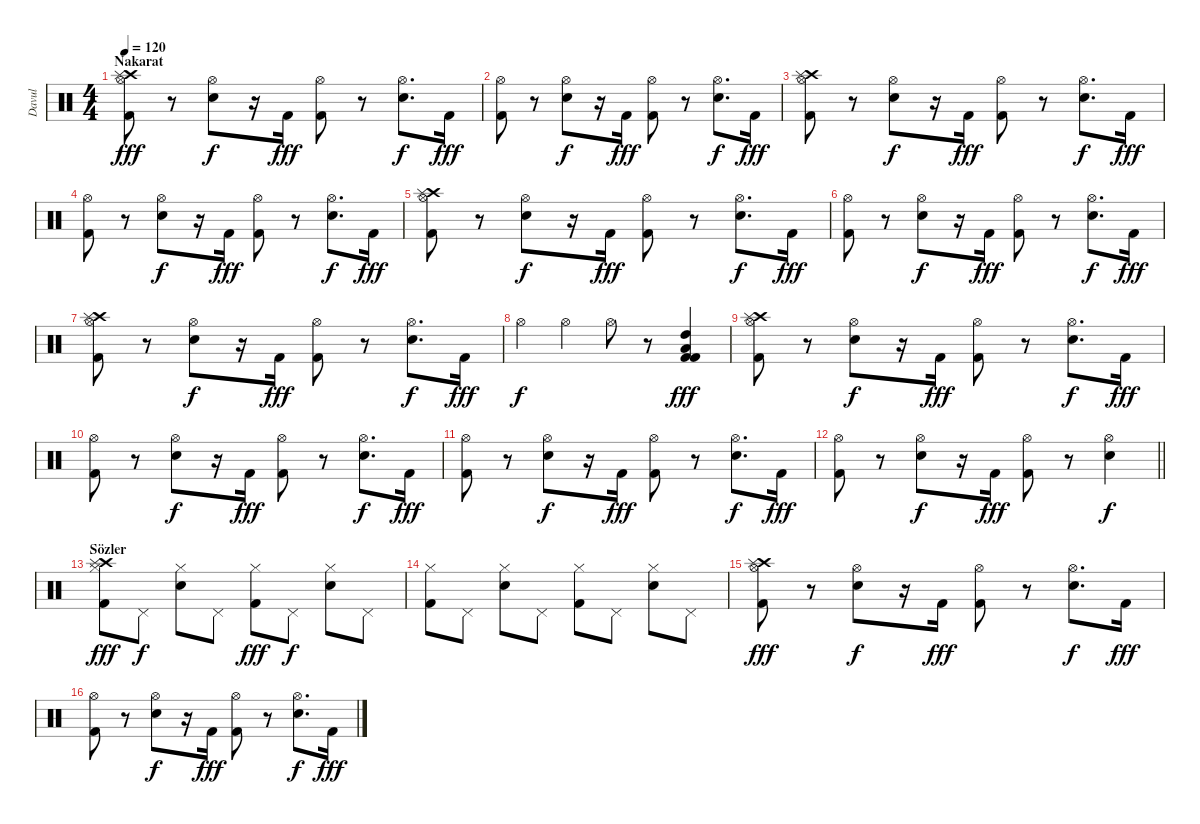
\track ("Davul" "Davul") {instrument percussion}
\staff {score}
\articulation defaults
\ts (4 4)
\section ("" "Nakarat")
\tempo 120
\clef neutral
\ks c
("Hi-Hat (open)" "Kick (hit) 2" "Crash high (hit)" "Splash (hit)").8{dy fff} r.8 ("Hi-Hat (open)" "Snare (hit) 2").8{dy f} r.16 "Kick (hit) 2".16{dy fff} ("Hi-Hat (open)" "Kick (hit) 2").8 r.8 ("Hi-Hat (open)" "Snare (hit) 2").8{d dy f} "Kick (hit) 2".16{dy fff} |
("Hi-Hat (open)" "Kick (hit) 2").8 r.8 ("Hi-Hat (open)" "Snare (hit) 2").8{dy f} r.16 "Kick (hit) 2".16{dy fff} ("Hi-Hat (open)" "Kick (hit) 2").8 r.8 ("Hi-Hat (open)" "Snare (hit) 2").8{d dy f} "Kick (hit) 2".16{dy fff} |
("Hi-Hat (open)" "Kick (hit) 2" "Crash high (hit)" "Splash (hit)").8 r.8 ("Hi-Hat (open)" "Snare (hit) 2").8{dy f} r.16 "Kick (hit) 2".16{dy fff} ("Hi-Hat (open)" "Kick (hit) 2").8 r.8 ("Hi-Hat (open)" "Snare (hit) 2").8{d dy f} "Kick (hit) 2".16{dy fff} |
("Hi-Hat (open)" "Kick (hit) 2").8 r.8 ("Hi-Hat (open)" "Snare (hit) 2").8{dy f} r.16 "Kick (hit) 2".16{dy fff} ("Hi-Hat (open)" "Kick (hit) 2").8 r.8 ("Hi-Hat (open)" "Snare (hit) 2").8{d dy f} "Kick (hit) 2".16{dy fff} |
("Hi-Hat (open)" "Kick (hit) 2" "Crash high (hit)" "Splash (hit)").8 r.8 ("Hi-Hat (open)" "Snare (hit) 2").8{dy f} r.16 "Kick (hit) 2".16{dy fff} ("Hi-Hat (open)" "Kick (hit) 2").8 r.8 ("Hi-Hat (open)" "Snare (hit) 2").8{d dy f} "Kick (hit) 2".16{dy fff} |
("Hi-Hat (open)" "Kick (hit) 2").8 r.8 ("Hi-Hat (open)" "Snare (hit) 2").8{dy f} r.16 "Kick (hit) 2".16{dy fff} ("Hi-Hat (open)" "Kick (hit) 2").8 r.8 ("Hi-Hat (open)" "Snare (hit) 2").8{d dy f} "Kick (hit) 2".16{dy fff} |
("Hi-Hat (open)" "Kick (hit) 2" "Crash high (hit)" "Splash (hit)").8 r.8 ("Hi-Hat (open)" "Snare (hit) 2").8{dy f} r.16 "Kick (hit) 2".16{dy fff} ("Hi-Hat (open)" "Kick (hit) 2").8 r.8 ("Hi-Hat (open)" "Snare (hit) 2").8{d dy f} "Kick (hit) 2".16{dy fff} |
"Hi-Hat (open)".4{dy f} "Hi-Hat (open)".4 "Hi-Hat (open)".8 r.8 ("Kick (hit) 2" "Kick (hit) 2" "Low Tom (hit)" "High Tom (hit)").4{dy fff} |
("Hi-Hat (open)" "Kick (hit) 2" "Crash high (hit)" "Splash (hit)").8 r.8 ("Hi-Hat (open)" "Snare (hit) 2").8{dy f} r.16 "Kick (hit) 2".16{dy fff} ("Hi-Hat (open)" "Kick (hit) 2").8 r.8 ("Hi-Hat (open)" "Snare (hit) 2").8{d dy f} "Kick (hit) 2".16{dy fff} |
("Hi-Hat (open)" "Kick (hit) 2").8 r.8 ("Hi-Hat (open)" "Snare (hit) 2").8{dy f} r.16 "Kick (hit) 2".16{dy fff} ("Hi-Hat (open)" "Kick (hit) 2").8 r.8 ("Hi-Hat (open)" "Snare (hit) 2").8{d dy f} "Kick (hit) 2".16{dy fff} |
("Hi-Hat (open)" "Kick (hit) 2").8 r.8 ("Hi-Hat (open)" "Snare (hit) 2").8{dy f} r.16 "Kick (hit) 2".16{dy fff} ("Hi-Hat (open)" "Kick (hit) 2").8 r.8 ("Hi-Hat (open)" "Snare (hit) 2").8{d dy f} "Kick (hit) 2".16{dy fff} |
\barLineRight lightlight
("Hi-Hat (open)" "Kick (hit) 2").8 r.8 ("Hi-Hat (open)" "Snare (hit) 2").8{dy f} r.16 "Kick (hit) 2".16{dy fff} ("Hi-Hat (open)" "Kick (hit) 2").8 r.8 ("Hi-Hat (open)" "Snare (hit) 2").4{dy f} |
\section ("" "Sözler")
("Hi-Hat (closed)" "Kick (hit) 2" "Crash high (hit)" "Splash (hit)").8{dy fff} "Pedal Hi-Hat (hit)".8{dy f} ("Hi-Hat (closed)" "Snare (hit) 2").8 "Pedal Hi-Hat (hit)".8 ("Hi-Hat (closed)" "Kick (hit) 2").8{dy fff} "Pedal Hi-Hat (hit)".8{dy f} ("Hi-Hat (closed)" "Snare (hit) 2").8 "Pedal Hi-Hat (hit)".8 |
("Hi-Hat (closed)" "Kick (hit) 2").8 "Pedal Hi-Hat (hit)".8 ("Hi-Hat (closed)" "Snare (hit) 2").8 "Pedal Hi-Hat (hit)".8 ("Hi-Hat (closed)" "Kick (hit) 2").8 "Pedal Hi-Hat (hit)".8 ("Hi-Hat (closed)" "Snare (hit) 2").8 "Pedal Hi-Hat (hit)".8 |
("Hi-Hat (open)" "Kick (hit) 2" "Crash high (hit)" "Splash (hit)").8{dy fff} r.8 ("Hi-Hat (open)" "Snare (hit) 2").8{dy f} r.16 "Kick (hit) 2".16{dy fff} ("Hi-Hat (open)" "Kick (hit) 2").8 r.8 ("Hi-Hat (open)" "Snare (hit) 2").8{d dy f} "Kick (hit) 2".16{dy fff} |
("Hi-Hat (open)" "Kick (hit) 2").8 r.8 ("Hi-Hat (open)" "Snare (hit) 2").8{dy f} r.16 "Kick (hit) 2".16{dy fff} ("Hi-Hat (open)" "Kick (hit) 2").8 r.8 ("Hi-Hat (open)" "Snare (hit) 2").8{d dy f} "Kick (hit) 2".16{dy fff}
